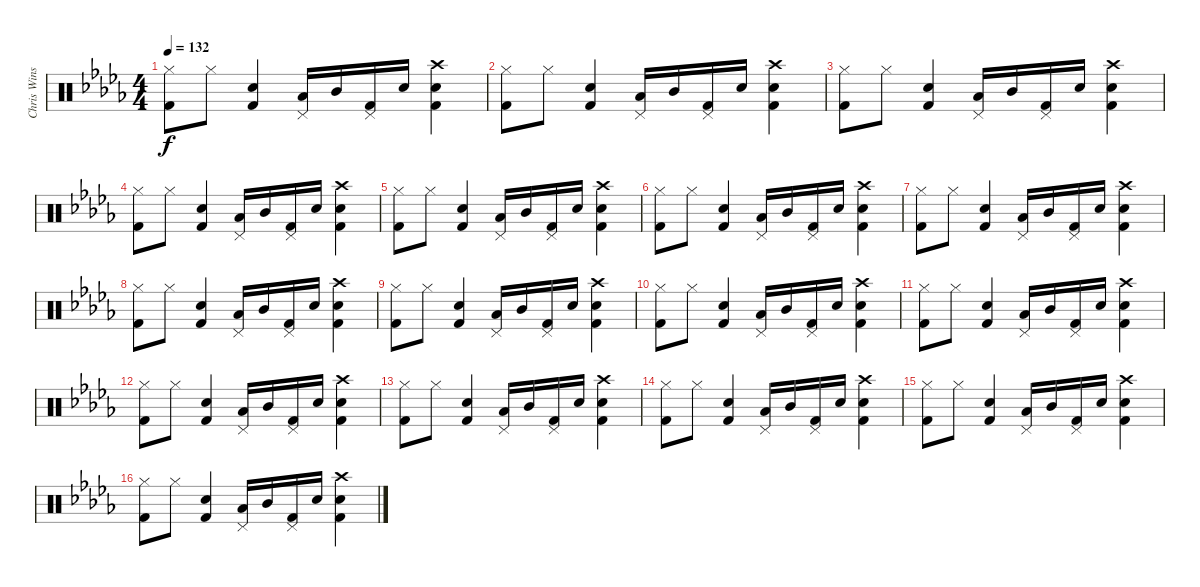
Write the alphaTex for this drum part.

\track ("Chris Winship (Drums)" "Chris Wins") {instrument percussion}
\staff {score}
\articulation defaults
\ts (4 4)
\tempo 132
\clef neutral
\ks db
("Hi-Hat (closed)" "Kick (hit) 2").8{dy f} "Hi-Hat (closed)".8 ("Electric Snare (hit)" "Kick (hit) 2").4 ("Pedal Hi-Hat (hit)" "Low Tom (hit)").16 "Mid Tom (hit)".16 ("Pedal Hi-Hat (hit)" "Kick (hit) 2").16 "Electric Snare (hit)".16 ("Crash high (hit)" "Kick (hit) 2" "Electric Snare (hit)").4 |
("Hi-Hat (closed)" "Kick (hit) 2").8 "Hi-Hat (closed)".8 ("Electric Snare (hit)" "Kick (hit) 2").4 ("Pedal Hi-Hat (hit)" "Low Tom (hit)").16 "Mid Tom (hit)".16 ("Pedal Hi-Hat (hit)" "Kick (hit) 2").16 "Electric Snare (hit)".16 ("Crash high (hit)" "Kick (hit) 2" "Electric Snare (hit)").4 |
("Hi-Hat (closed)" "Kick (hit) 2").8 "Hi-Hat (closed)".8 ("Electric Snare (hit)" "Kick (hit) 2").4 ("Pedal Hi-Hat (hit)" "Low Tom (hit)").16 "Mid Tom (hit)".16 ("Pedal Hi-Hat (hit)" "Kick (hit) 2").16 "Electric Snare (hit)".16 ("Crash high (hit)" "Kick (hit) 2" "Electric Snare (hit)").4 |
("Hi-Hat (closed)" "Kick (hit) 2").8 "Hi-Hat (closed)".8 ("Electric Snare (hit)" "Kick (hit) 2").4 ("Pedal Hi-Hat (hit)" "Low Tom (hit)").16 "Mid Tom (hit)".16 ("Pedal Hi-Hat (hit)" "Kick (hit) 2").16 "Electric Snare (hit)".16 ("Crash high (hit)" "Kick (hit) 2" "Electric Snare (hit)").4 |
("Hi-Hat (closed)" "Kick (hit) 2").8 "Hi-Hat (closed)".8 ("Electric Snare (hit)" "Kick (hit) 2").4 ("Pedal Hi-Hat (hit)" "Low Tom (hit)").16 "Mid Tom (hit)".16 ("Pedal Hi-Hat (hit)" "Kick (hit) 2").16 "Electric Snare (hit)".16 ("Crash high (hit)" "Kick (hit) 2" "Electric Snare (hit)").4 |
("Hi-Hat (closed)" "Kick (hit) 2").8 "Hi-Hat (closed)".8 ("Electric Snare (hit)" "Kick (hit) 2").4 ("Pedal Hi-Hat (hit)" "Low Tom (hit)").16 "Mid Tom (hit)".16 ("Pedal Hi-Hat (hit)" "Kick (hit) 2").16 "Electric Snare (hit)".16 ("Crash high (hit)" "Kick (hit) 2" "Electric Snare (hit)").4 |
("Hi-Hat (closed)" "Kick (hit) 2").8 "Hi-Hat (closed)".8 ("Electric Snare (hit)" "Kick (hit) 2").4 ("Pedal Hi-Hat (hit)" "Low Tom (hit)").16 "Mid Tom (hit)".16 ("Pedal Hi-Hat (hit)" "Kick (hit) 2").16 "Electric Snare (hit)".16 ("Crash high (hit)" "Kick (hit) 2" "Electric Snare (hit)").4 |
("Hi-Hat (closed)" "Kick (hit) 2").8 "Hi-Hat (closed)".8 ("Electric Snare (hit)" "Kick (hit) 2").4 ("Pedal Hi-Hat (hit)" "Low Tom (hit)").16 "Mid Tom (hit)".16 ("Pedal Hi-Hat (hit)" "Kick (hit) 2").16 "Electric Snare (hit)".16 ("Crash high (hit)" "Kick (hit) 2" "Electric Snare (hit)").4 |
("Hi-Hat (closed)" "Kick (hit) 2").8 "Hi-Hat (closed)".8 ("Electric Snare (hit)" "Kick (hit) 2").4 ("Pedal Hi-Hat (hit)" "Low Tom (hit)").16 "Mid Tom (hit)".16 ("Pedal Hi-Hat (hit)" "Kick (hit) 2").16 "Electric Snare (hit)".16 ("Crash high (hit)" "Kick (hit) 2" "Electric Snare (hit)").4 |
("Hi-Hat (closed)" "Kick (hit) 2").8 "Hi-Hat (closed)".8 ("Electric Snare (hit)" "Kick (hit) 2").4 ("Pedal Hi-Hat (hit)" "Low Tom (hit)").16 "Mid Tom (hit)".16 ("Pedal Hi-Hat (hit)" "Kick (hit) 2").16 "Electric Snare (hit)".16 ("Crash high (hit)" "Kick (hit) 2" "Electric Snare (hit)").4 |
("Hi-Hat (closed)" "Kick (hit) 2").8 "Hi-Hat (closed)".8 ("Electric Snare (hit)" "Kick (hit) 2").4 ("Pedal Hi-Hat (hit)" "Low Tom (hit)").16 "Mid Tom (hit)".16 ("Pedal Hi-Hat (hit)" "Kick (hit) 2").16 "Electric Snare (hit)".16 ("Crash high (hit)" "Kick (hit) 2" "Electric Snare (hit)").4 |
("Hi-Hat (closed)" "Kick (hit) 2").8 "Hi-Hat (closed)".8 ("Electric Snare (hit)" "Kick (hit) 2").4 ("Pedal Hi-Hat (hit)" "Low Tom (hit)").16 "Mid Tom (hit)".16 ("Pedal Hi-Hat (hit)" "Kick (hit) 2").16 "Electric Snare (hit)".16 ("Crash high (hit)" "Kick (hit) 2" "Electric Snare (hit)").4 |
("Hi-Hat (closed)" "Kick (hit) 2").8 "Hi-Hat (closed)".8 ("Electric Snare (hit)" "Kick (hit) 2").4 ("Pedal Hi-Hat (hit)" "Low Tom (hit)").16 "Mid Tom (hit)".16 ("Pedal Hi-Hat (hit)" "Kick (hit) 2").16 "Electric Snare (hit)".16 ("Crash high (hit)" "Kick (hit) 2" "Electric Snare (hit)").4 |
("Hi-Hat (closed)" "Kick (hit) 2").8 "Hi-Hat (closed)".8 ("Electric Snare (hit)" "Kick (hit) 2").4 ("Pedal Hi-Hat (hit)" "Low Tom (hit)").16 "Mid Tom (hit)".16 ("Pedal Hi-Hat (hit)" "Kick (hit) 2").16 "Electric Snare (hit)".16 ("Crash high (hit)" "Kick (hit) 2" "Electric Snare (hit)").4 |
("Hi-Hat (closed)" "Kick (hit) 2").8 "Hi-Hat (closed)".8 ("Electric Snare (hit)" "Kick (hit) 2").4 ("Pedal Hi-Hat (hit)" "Low Tom (hit)").16 "Mid Tom (hit)".16 ("Pedal Hi-Hat (hit)" "Kick (hit) 2").16 "Electric Snare (hit)".16 ("Crash high (hit)" "Kick (hit) 2" "Electric Snare (hit)").4 |
("Hi-Hat (closed)" "Kick (hit) 2").8 "Hi-Hat (closed)".8 ("Electric Snare (hit)" "Kick (hit) 2").4 ("Pedal Hi-Hat (hit)" "Low Tom (hit)").16 "Mid Tom (hit)".16 ("Pedal Hi-Hat (hit)" "Kick (hit) 2").16 "Electric Snare (hit)".16 ("Crash high (hit)" "Kick (hit) 2" "Electric Snare (hit)").4
